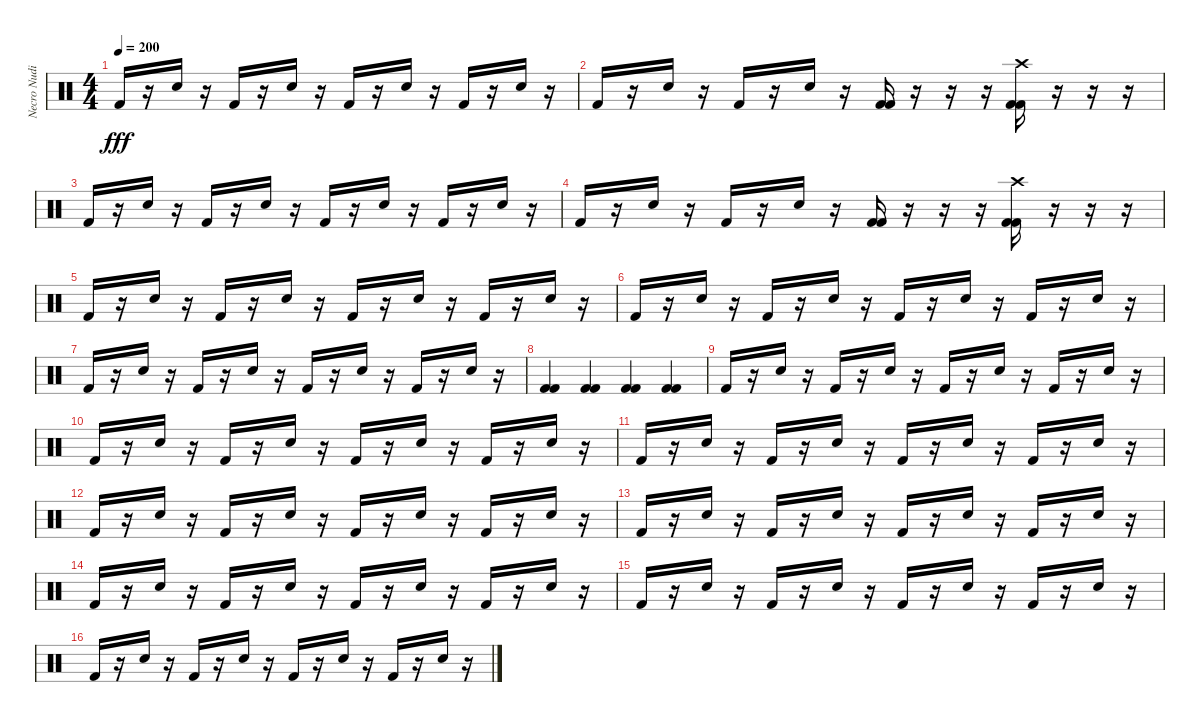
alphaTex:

\track ("Necro Nudist" "Necro Nudi") {instrument percussion}
\staff {score}
\articulation defaults
\ts (4 4)
\tempo 200
\clef neutral
\ks c "Kick (hit) 2".16{dy fff}
r.16 "Snare (hit) 2".16 r.16 "Kick (hit) 2".16 r.16 "Snare (hit) 2".16 r.16 "Kick (hit) 2".16 r.16 "Snare (hit) 2".16 r.16 "Kick (hit) 2".16 r.16 "Snare (hit) 2".16 r.16 |
"Kick (hit) 2".16 r.16 "Snare (hit) 2".16 r.16 "Kick (hit) 2".16 r.16 "Snare (hit) 2".16 r.16 ("Kick (hit) 2" "Kick (hit) 2").16 r.16 r.16 r.16 ("Crash high (hit)" "Kick (hit) 2" "Kick (hit) 2").16 r.16 r.16 r.16 |
"Kick (hit) 2".16 r.16 "Snare (hit) 2".16 r.16 "Kick (hit) 2".16 r.16 "Snare (hit) 2".16 r.16 "Kick (hit) 2".16 r.16 "Snare (hit) 2".16 r.16 "Kick (hit) 2".16 r.16 "Snare (hit) 2".16 r.16 |
"Kick (hit) 2".16 r.16 "Snare (hit) 2".16 r.16 "Kick (hit) 2".16 r.16 "Snare (hit) 2".16 r.16 ("Kick (hit) 2" "Kick (hit) 2").16 r.16 r.16 r.16 ("Crash high (hit)" "Kick (hit) 2" "Kick (hit) 2").16 r.16 r.16 r.16 |
"Kick (hit) 2".16 r.16 "Snare (hit) 2".16 r.16 "Kick (hit) 2".16 r.16 "Snare (hit) 2".16 r.16 "Kick (hit) 2".16 r.16 "Snare (hit) 2".16 r.16 "Kick (hit) 2".16 r.16 "Snare (hit) 2".16 r.16 |
"Kick (hit) 2".16 r.16 "Snare (hit) 2".16 r.16 "Kick (hit) 2".16 r.16 "Snare (hit) 2".16 r.16 "Kick (hit) 2".16 r.16 "Snare (hit) 2".16 r.16 "Kick (hit) 2".16 r.16 "Snare (hit) 2".16 r.16 |
"Kick (hit) 2".16 r.16 "Snare (hit) 2".16 r.16 "Kick (hit) 2".16 r.16 "Snare (hit) 2".16 r.16 "Kick (hit) 2".16 r.16 "Snare (hit) 2".16 r.16 "Kick (hit) 2".16 r.16 "Snare (hit) 2".16 r.16 |
("Kick (hit) 2" "Kick (hit) 2").4 ("Kick (hit) 2" "Kick (hit) 2").4 ("Kick (hit) 2" "Kick (hit) 2").4 ("Kick (hit) 2" "Kick (hit) 2").4 |
"Kick (hit) 2".16 r.16 "Snare (hit) 2".16 r.16 "Kick (hit) 2".16 r.16 "Snare (hit) 2".16 r.16 "Kick (hit) 2".16 r.16 "Snare (hit) 2".16 r.16 "Kick (hit) 2".16 r.16 "Snare (hit) 2".16 r.16 |
"Kick (hit) 2".16 r.16 "Snare (hit) 2".16 r.16 "Kick (hit) 2".16 r.16 "Snare (hit) 2".16 r.16 "Kick (hit) 2".16 r.16 "Snare (hit) 2".16 r.16 "Kick (hit) 2".16 r.16 "Snare (hit) 2".16 r.16 |
"Kick (hit) 2".16 r.16 "Snare (hit) 2".16 r.16 "Kick (hit) 2".16 r.16 "Snare (hit) 2".16 r.16 "Kick (hit) 2".16 r.16 "Snare (hit) 2".16 r.16 "Kick (hit) 2".16 r.16 "Snare (hit) 2".16 r.16 |
"Kick (hit) 2".16 r.16 "Snare (hit) 2".16 r.16 "Kick (hit) 2".16 r.16 "Snare (hit) 2".16 r.16 "Kick (hit) 2".16 r.16 "Snare (hit) 2".16 r.16 "Kick (hit) 2".16 r.16 "Snare (hit) 2".16 r.16 |
"Kick (hit) 2".16 r.16 "Snare (hit) 2".16 r.16 "Kick (hit) 2".16 r.16 "Snare (hit) 2".16 r.16 "Kick (hit) 2".16 r.16 "Snare (hit) 2".16 r.16 "Kick (hit) 2".16 r.16 "Snare (hit) 2".16 r.16 |
"Kick (hit) 2".16 r.16 "Snare (hit) 2".16 r.16 "Kick (hit) 2".16 r.16 "Snare (hit) 2".16 r.16 "Kick (hit) 2".16 r.16 "Snare (hit) 2".16 r.16 "Kick (hit) 2".16 r.16 "Snare (hit) 2".16 r.16 |
"Kick (hit) 2".16 r.16 "Snare (hit) 2".16 r.16 "Kick (hit) 2".16 r.16 "Snare (hit) 2".16 r.16 "Kick (hit) 2".16 r.16 "Snare (hit) 2".16 r.16 "Kick (hit) 2".16 r.16 "Snare (hit) 2".16 r.16 |
"Kick (hit) 2".16 r.16 "Snare (hit) 2".16 r.16 "Kick (hit) 2".16 r.16 "Snare (hit) 2".16 r.16 "Kick (hit) 2".16 r.16 "Snare (hit) 2".16 r.16 "Kick (hit) 2".16 r.16 "Snare (hit) 2".16 r.16
